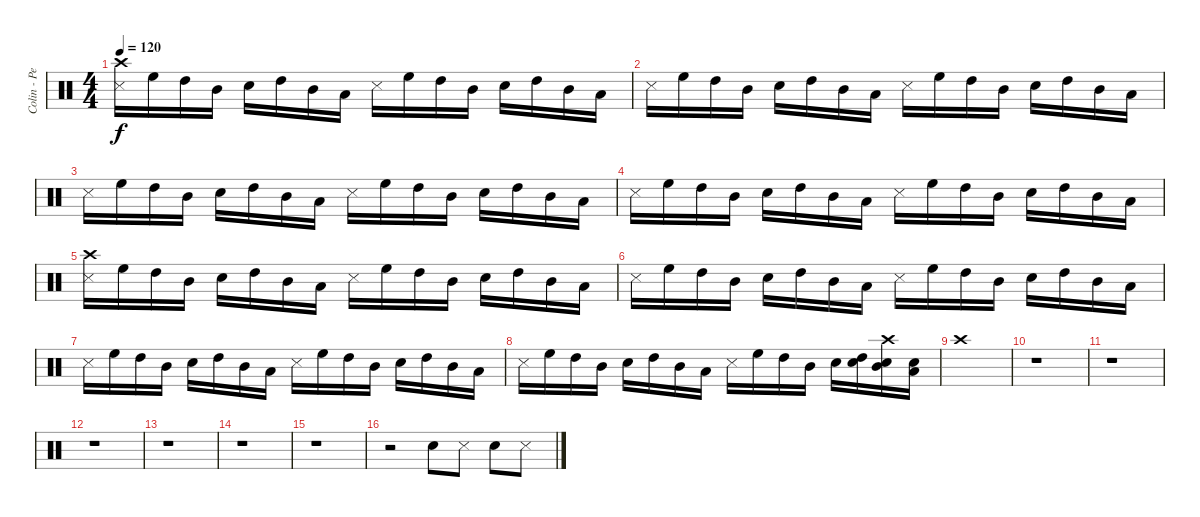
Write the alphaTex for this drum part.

\track ("Colin - Percussion" "Colin - Pe") {instrument percussion}
\staff {score}
\articulation defaults
\ts (4 4)
\tempo 120
\clef neutral
\ks c
("Crash high (hit)" "Metronome (hit)").16{dy f} "High Floor Tom (hit)".16 "High Tom (hit)".16 "Mid Tom (hit)".16 "Electric Snare (hit)".16 "High Tom (hit)".16 "Mid Tom (hit)".16 "Low Tom (hit)".16 "Metronome (hit)".16 "High Floor Tom (hit)".16 "High Tom (hit)".16 "Mid Tom (hit)".16 "Electric Snare (hit)".16 "High Tom (hit)".16 "Mid Tom (hit)".16 "Low Tom (hit)".16 |
"Metronome (hit)".16 "High Floor Tom (hit)".16 "High Tom (hit)".16 "Mid Tom (hit)".16 "Electric Snare (hit)".16 "High Tom (hit)".16 "Mid Tom (hit)".16 "Low Tom (hit)".16 "Metronome (hit)".16 "High Floor Tom (hit)".16 "High Tom (hit)".16 "Mid Tom (hit)".16 "Electric Snare (hit)".16 "High Tom (hit)".16 "Mid Tom (hit)".16 "Low Tom (hit)".16 |
"Metronome (hit)".16 "High Floor Tom (hit)".16 "High Tom (hit)".16 "Mid Tom (hit)".16 "Electric Snare (hit)".16 "High Tom (hit)".16 "Mid Tom (hit)".16 "Low Tom (hit)".16 "Metronome (hit)".16 "High Floor Tom (hit)".16 "High Tom (hit)".16 "Mid Tom (hit)".16 "Electric Snare (hit)".16 "High Tom (hit)".16 "Mid Tom (hit)".16 "Low Tom (hit)".16 |
"Metronome (hit)".16 "High Floor Tom (hit)".16 "High Tom (hit)".16 "Mid Tom (hit)".16 "Electric Snare (hit)".16 "High Tom (hit)".16 "Mid Tom (hit)".16 "Low Tom (hit)".16 "Metronome (hit)".16 "High Floor Tom (hit)".16 "High Tom (hit)".16 "Mid Tom (hit)".16 "Electric Snare (hit)".16 "High Tom (hit)".16 "Mid Tom (hit)".16 "Low Tom (hit)".16 |
("Crash high (hit)" "Metronome (hit)").16 "High Floor Tom (hit)".16 "High Tom (hit)".16 "Mid Tom (hit)".16 "Electric Snare (hit)".16 "High Tom (hit)".16 "Mid Tom (hit)".16 "Low Tom (hit)".16 "Metronome (hit)".16 "High Floor Tom (hit)".16 "High Tom (hit)".16 "Mid Tom (hit)".16 "Electric Snare (hit)".16 "High Tom (hit)".16 "Mid Tom (hit)".16 "Low Tom (hit)".16 |
"Metronome (hit)".16 "High Floor Tom (hit)".16 "High Tom (hit)".16 "Mid Tom (hit)".16 "Electric Snare (hit)".16 "High Tom (hit)".16 "Mid Tom (hit)".16 "Low Tom (hit)".16 "Metronome (hit)".16 "High Floor Tom (hit)".16 "High Tom (hit)".16 "Mid Tom (hit)".16 "Electric Snare (hit)".16 "High Tom (hit)".16 "Mid Tom (hit)".16 "Low Tom (hit)".16 |
"Metronome (hit)".16 "High Floor Tom (hit)".16 "High Tom (hit)".16 "Mid Tom (hit)".16 "Electric Snare (hit)".16 "High Tom (hit)".16 "Mid Tom (hit)".16 "Low Tom (hit)".16 "Metronome (hit)".16 "High Floor Tom (hit)".16 "High Tom (hit)".16 "Mid Tom (hit)".16 "Electric Snare (hit)".16 "High Tom (hit)".16 "Mid Tom (hit)".16 "Low Tom (hit)".16 |
"Metronome (hit)".16 "High Floor Tom (hit)".16 "High Tom (hit)".16 "Mid Tom (hit)".16 "Electric Snare (hit)".16 "High Tom (hit)".16 "Mid Tom (hit)".16 "Low Tom (hit)".16 "Metronome (hit)".16 "High Floor Tom (hit)".16 "High Tom (hit)".16 "Mid Tom (hit)".16 "Electric Snare (hit)".16 ("High Tom (hit)" "Electric Snare (hit)").16 ("Crash high (hit)" "Mid Tom (hit)" "Electric Snare (hit)").16 ("Low Tom (hit)" "Electric Snare (hit)").16 |
"Crash high (hit)".1 |
r.1 |
r.1 |
r.1 |
r.1 |
r.1 |
r.1 |
r.2 "Electric Snare (hit)".8 "Metronome (hit)".8 "Electric Snare (hit)".8 "Metronome (hit)".8
